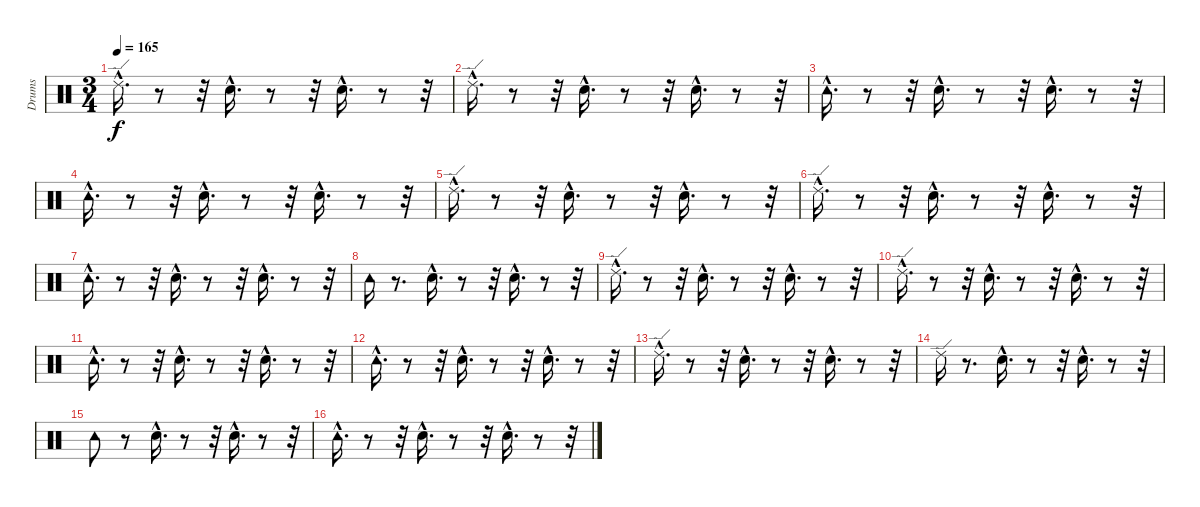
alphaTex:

\track ("Drums" "Drums") {instrument percussion}
\staff {score}
\articulation defaults
\ts (3 4)
\tempo 165
\clef neutral
\ks c "Ride (edge) 2"{hac}.16{d dy f}
r.8 r.32 "Snare (hit)"{hac}.16{d} r.8 r.32 "Snare (hit)"{hac}.16{d} r.8 r.32 |
"Ride (edge) 2"{hac}.16{d} r.8 r.32 "Snare (hit)"{hac}.16{d} r.8 r.32 "Snare (hit)"{hac}.16{d} r.8 r.32 |
"Tambourine (hit)"{hac}.16{d} r.8 r.32 "Snare (hit)"{hac}.16{d} r.8 r.32 "Snare (hit)"{hac}.16{d} r.8 r.32 |
"Tambourine (hit)"{hac}.16{d} r.8 r.32 "Snare (hit)"{hac}.16{d} r.8 r.32 "Snare (hit)"{hac}.16{d} r.8 r.32 |
"Ride (edge) 2"{hac}.16{d} r.8 r.32 "Snare (hit)"{hac}.16{d} r.8 r.32 "Snare (hit)"{hac}.16{d} r.8 r.32 |
"Ride (edge) 2"{hac}.16{d} r.8 r.32 "Snare (hit)"{hac}.16{d} r.8 r.32 "Snare (hit)"{hac}.16{d} r.8 r.32 |
"Tambourine (hit)"{hac}.16{d} r.8 r.32 "Snare (hit)"{hac}.16{d} r.8 r.32 "Snare (hit)"{hac}.16{d} r.8 r.32 |
"Tambourine (hit)".16 r.8{d} "Snare (hit)"{hac}.16{d} r.8 r.32 "Snare (hit)"{hac}.16{d} r.8 r.32 |
"Ride (edge) 2"{hac}.16{d} r.8 r.32 "Snare (hit)"{hac}.16{d} r.8 r.32 "Snare (hit)"{hac}.16{d} r.8 r.32 |
"Ride (edge) 2"{hac}.16{d} r.8 r.32 "Snare (hit)"{hac}.16{d} r.8 r.32 "Snare (hit)"{hac}.16{d} r.8 r.32 |
"Tambourine (hit)"{hac}.16{d} r.8 r.32 "Snare (hit)"{hac}.16{d} r.8 r.32 "Snare (hit)"{hac}.16{d} r.8 r.32 |
"Tambourine (hit)"{hac}.16{d} r.8 r.32 "Snare (hit)"{hac}.16{d} r.8 r.32 "Snare (hit)"{hac}.16{d} r.8 r.32 |
"Ride (edge) 2"{hac}.16{d} r.8 r.32 "Snare (hit)"{hac}.16{d} r.8 r.32 "Snare (hit)"{hac}.16{d} r.8 r.32 |
"Ride (edge) 2".16 r.8{d} "Snare (hit)"{hac}.16{d} r.8 r.32 "Snare (hit)"{hac}.16{d} r.8 r.32 |
"Tambourine (hit)".8 r.8 "Snare (hit)"{hac}.16{d} r.8 r.32 "Snare (hit)"{hac}.16{d} r.8 r.32 |
"Tambourine (hit)"{hac}.16{d} r.8 r.32 "Snare (hit)"{hac}.16{d} r.8 r.32 "Snare (hit)"{hac}.16{d} r.8 r.32
